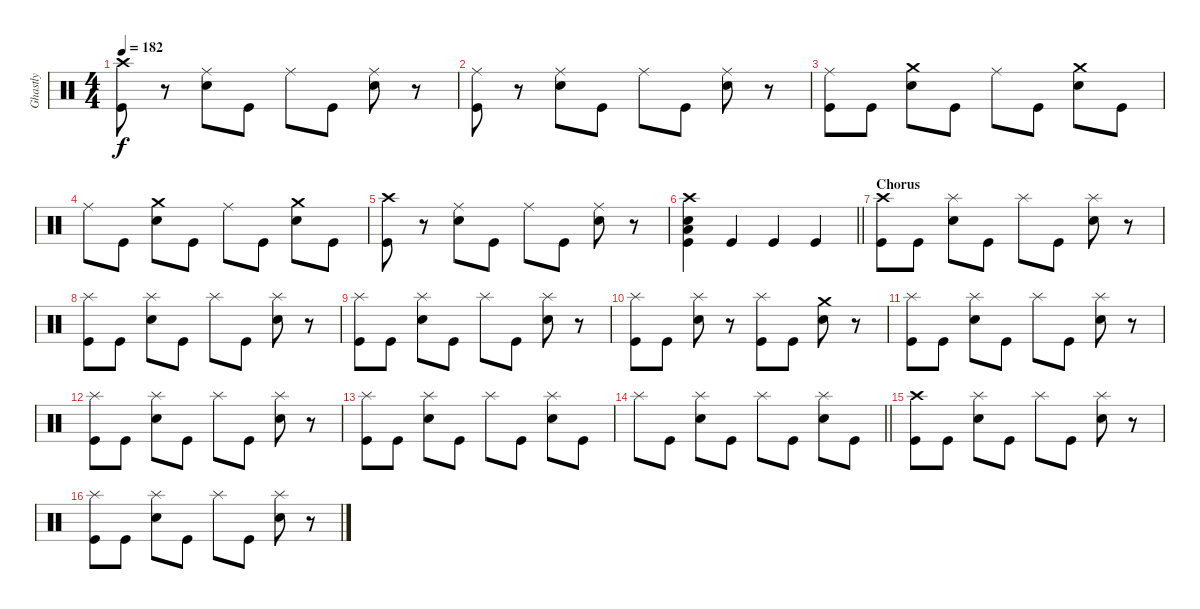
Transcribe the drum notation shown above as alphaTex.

\track ("Ghastly" "Ghastly") {instrument percussion}
\staff {score}
\articulation defaults
\ts (4 4)
\tempo 182
\clef neutral
\ks c
("Crash high (hit)" "Kick (hit)").8{dy f} r.8 ("Ride (middle)" "Electric Snare (hit)").8 "Kick (hit)".8 "Ride (middle)".8 "Kick (hit)".8 ("Ride (middle)" "Electric Snare (hit)").8 r.8 |
("Ride (middle)" "Kick (hit)").8 r.8 ("Ride (middle)" "Electric Snare (hit)").8 "Kick (hit)".8 "Ride (middle)".8 "Kick (hit)".8 ("Ride (middle)" "Electric Snare (hit)").8 r.8 |
("Ride (middle)" "Kick (hit)").8 "Kick (hit)".8 ("Crash medium (hit)" "Electric Snare (hit)").8 "Kick (hit)".8 "Ride (middle)".8 "Kick (hit)".8 ("Crash medium (hit)" "Electric Snare (hit)").8 "Kick (hit)".8 |
"Ride (middle)".8 "Kick (hit)".8 ("Crash medium (hit)" "Electric Snare (hit)").8 "Kick (hit)".8 "Ride (middle)".8 "Kick (hit)".8 ("Crash medium (hit)" "Electric Snare (hit)").8 "Kick (hit)".8 |
("Crash high (hit)" "Kick (hit)").8 r.8 ("Ride (middle)" "Electric Snare (hit)").8 "Kick (hit)".8 "Ride (middle)".8 "Kick (hit)".8 ("Ride (middle)" "Electric Snare (hit)").8 r.8 |
\barLineRight lightlight
("Crash high (hit)" "Low Tom (hit)" "Electric Snare (hit)" "Kick (hit)").4 "Kick (hit)".4 "Kick (hit)".4 "Kick (hit)".4 |
\section ("" "Chorus")
("Crash high (hit)" "Kick (hit)").8 "Kick (hit)".8 ("Splash (hit)" "Electric Snare (hit)").8 "Kick (hit)".8 "Splash (hit)".8 "Kick (hit)".8 ("Splash (hit)" "Electric Snare (hit)").8 r.8 |
("Splash (hit)" "Kick (hit)").8 "Kick (hit)".8 ("Splash (hit)" "Electric Snare (hit)").8 "Kick (hit)".8 "Splash (hit)".8 "Kick (hit)".8 ("Splash (hit)" "Electric Snare (hit)").8 r.8 |
("Splash (hit)" "Kick (hit)").8 "Kick (hit)".8 ("Splash (hit)" "Electric Snare (hit)").8 "Kick (hit)".8 "Splash (hit)".8 "Kick (hit)".8 ("Splash (hit)" "Electric Snare (hit)").8 r.8 |
("Splash (hit)" "Kick (hit)").8 "Kick (hit)".8 ("Splash (hit)" "Electric Snare (hit)").8 r.8 ("Splash (hit)" "Kick (hit)").8 "Kick (hit)".8 ("Crash medium (hit)" "Electric Snare (hit)").8 r.8 |
("Splash (hit)" "Kick (hit)").8 "Kick (hit)".8 ("Splash (hit)" "Electric Snare (hit)").8 "Kick (hit)".8 "Splash (hit)".8 "Kick (hit)".8 ("Splash (hit)" "Electric Snare (hit)").8 r.8 |
("Splash (hit)" "Kick (hit)").8 "Kick (hit)".8 ("Splash (hit)" "Electric Snare (hit)").8 "Kick (hit)".8 "Splash (hit)".8 "Kick (hit)".8 ("Splash (hit)" "Electric Snare (hit)").8 r.8 |
("Splash (hit)" "Kick (hit)").8 "Kick (hit)".8 ("Splash (hit)" "Electric Snare (hit)").8 "Kick (hit)".8 "Splash (hit)".8 "Kick (hit)".8 ("Splash (hit)" "Electric Snare (hit)").8 "Kick (hit)".8 |
\barLineRight lightlight "Splash (hit)".8 "Kick (hit)".8
("Splash (hit)" "Electric Snare (hit)").8 "Kick (hit)".8 "Splash (hit)".8 "Kick (hit)".8 ("Splash (hit)" "Electric Snare (hit)").8 "Kick (hit)".8 |
("Crash high (hit)" "Kick (hit)").8 "Kick (hit)".8 ("Splash (hit)" "Electric Snare (hit)").8 "Kick (hit)".8 "Splash (hit)".8 "Kick (hit)".8 ("Splash (hit)" "Electric Snare (hit)").8 r.8 |
("Splash (hit)" "Kick (hit)").8 "Kick (hit)".8 ("Splash (hit)" "Electric Snare (hit)").8 "Kick (hit)".8 "Splash (hit)".8 "Kick (hit)".8 ("Splash (hit)" "Electric Snare (hit)").8 r.8
